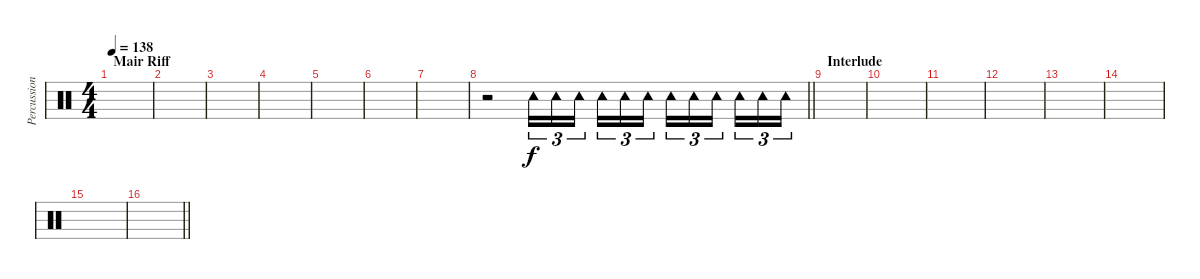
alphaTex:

\track ("Percussions" "Percussion") {instrument percussion}
\staff
\articulation defaults
\ts (4 4)
\section ("" "Mair Riff")
\tempo 138
\clef neutral
\ks c
|
|
|
|
|
|
|
\barLineRight lightlight
r.2 "Tambourine (hit)".16{tu (3 2) volume 16} "Tambourine (hit)".16{tu (3 2)} "Tambourine (hit)".16{tu (3 2) beam splitsecondary} "Tambourine (hit)".16{tu (3 2)} "Tambourine (hit)".16{tu (3 2)} "Tambourine (hit)".16{tu (3 2)} "Tambourine (hit)".16{tu (3 2)} "Tambourine (hit)".16{tu (3 2)} "Tambourine (hit)".16{tu (3 2) beam splitsecondary} "Tambourine (hit)".16{tu (3 2)} "Tambourine (hit)".16{tu (3 2)} "Tambourine (hit)".16{tu (3 2)} |
\section ("" "Interlude")
|
|
|
|
|
|
|
\barLineRight lightlight
